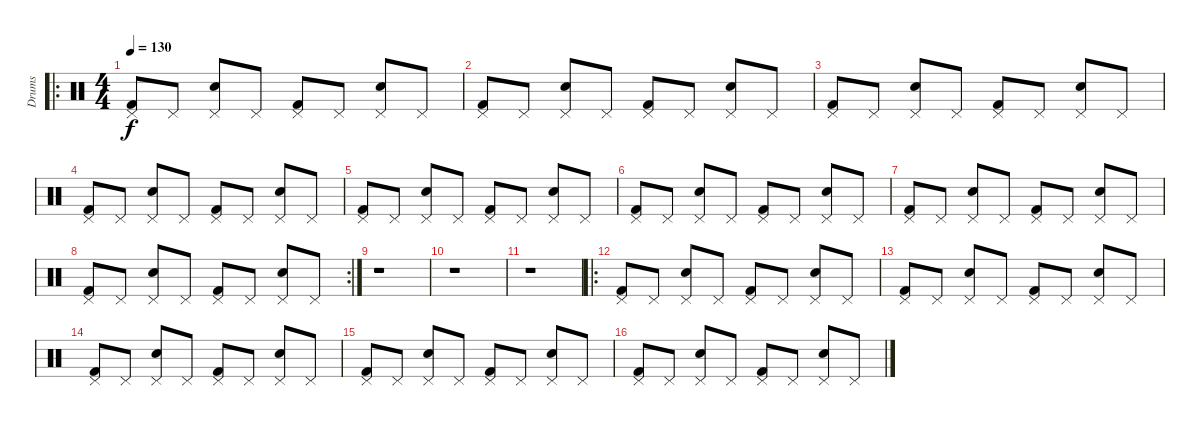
\track ("Drums" "Drums") {instrument percussion}
\staff {score}
\articulation defaults
\ro
\ts (4 4)
\tempo 130
\clef neutral
\ks c
("Pedal Hi-Hat (hit)" "Kick (hit) 2").8{dy f} "Pedal Hi-Hat (hit)".8 ("Pedal Hi-Hat (hit)" "Snare (hit) 2").8 "Pedal Hi-Hat (hit)".8 ("Pedal Hi-Hat (hit)" "Kick (hit) 2").8 "Pedal Hi-Hat (hit)".8 ("Pedal Hi-Hat (hit)" "Snare (hit) 2").8 "Pedal Hi-Hat (hit)".8 |
("Pedal Hi-Hat (hit)" "Kick (hit) 2").8 "Pedal Hi-Hat (hit)".8 ("Pedal Hi-Hat (hit)" "Snare (hit) 2").8 "Pedal Hi-Hat (hit)".8 ("Pedal Hi-Hat (hit)" "Kick (hit) 2").8 "Pedal Hi-Hat (hit)".8 ("Pedal Hi-Hat (hit)" "Snare (hit) 2").8 "Pedal Hi-Hat (hit)".8 |
("Pedal Hi-Hat (hit)" "Kick (hit) 2").8 "Pedal Hi-Hat (hit)".8 ("Pedal Hi-Hat (hit)" "Snare (hit) 2").8 "Pedal Hi-Hat (hit)".8 ("Pedal Hi-Hat (hit)" "Kick (hit) 2").8 "Pedal Hi-Hat (hit)".8 ("Pedal Hi-Hat (hit)" "Snare (hit) 2").8 "Pedal Hi-Hat (hit)".8 |
("Pedal Hi-Hat (hit)" "Kick (hit) 2").8 "Pedal Hi-Hat (hit)".8 ("Pedal Hi-Hat (hit)" "Snare (hit) 2").8 "Pedal Hi-Hat (hit)".8 ("Pedal Hi-Hat (hit)" "Kick (hit) 2").8 "Pedal Hi-Hat (hit)".8 ("Pedal Hi-Hat (hit)" "Snare (hit) 2").8 "Pedal Hi-Hat (hit)".8 |
("Pedal Hi-Hat (hit)" "Kick (hit) 2").8 "Pedal Hi-Hat (hit)".8 ("Pedal Hi-Hat (hit)" "Snare (hit) 2").8 "Pedal Hi-Hat (hit)".8 ("Pedal Hi-Hat (hit)" "Kick (hit) 2").8 "Pedal Hi-Hat (hit)".8 ("Pedal Hi-Hat (hit)" "Snare (hit) 2").8 "Pedal Hi-Hat (hit)".8 |
("Pedal Hi-Hat (hit)" "Kick (hit) 2").8 "Pedal Hi-Hat (hit)".8 ("Pedal Hi-Hat (hit)" "Snare (hit) 2").8 "Pedal Hi-Hat (hit)".8 ("Pedal Hi-Hat (hit)" "Kick (hit) 2").8 "Pedal Hi-Hat (hit)".8 ("Pedal Hi-Hat (hit)" "Snare (hit) 2").8 "Pedal Hi-Hat (hit)".8 |
("Pedal Hi-Hat (hit)" "Kick (hit) 2").8 "Pedal Hi-Hat (hit)".8 ("Pedal Hi-Hat (hit)" "Snare (hit) 2").8 "Pedal Hi-Hat (hit)".8 ("Pedal Hi-Hat (hit)" "Kick (hit) 2").8 "Pedal Hi-Hat (hit)".8 ("Pedal Hi-Hat (hit)" "Snare (hit) 2").8 "Pedal Hi-Hat (hit)".8 |
\rc 2
("Pedal Hi-Hat (hit)" "Kick (hit) 2").8 "Pedal Hi-Hat (hit)".8 ("Pedal Hi-Hat (hit)" "Snare (hit) 2").8 "Pedal Hi-Hat (hit)".8 ("Pedal Hi-Hat (hit)" "Kick (hit) 2").8 "Pedal Hi-Hat (hit)".8 ("Pedal Hi-Hat (hit)" "Snare (hit) 2").8 "Pedal Hi-Hat (hit)".8 |
r.1 |
r.1 |
r.1 |
\ro
("Pedal Hi-Hat (hit)" "Kick (hit) 2").8 "Pedal Hi-Hat (hit)".8 ("Pedal Hi-Hat (hit)" "Snare (hit) 2").8 "Pedal Hi-Hat (hit)".8 ("Pedal Hi-Hat (hit)" "Kick (hit) 2").8 "Pedal Hi-Hat (hit)".8 ("Pedal Hi-Hat (hit)" "Snare (hit) 2").8 "Pedal Hi-Hat (hit)".8 |
("Pedal Hi-Hat (hit)" "Kick (hit) 2").8 "Pedal Hi-Hat (hit)".8 ("Pedal Hi-Hat (hit)" "Snare (hit) 2").8 "Pedal Hi-Hat (hit)".8 ("Pedal Hi-Hat (hit)" "Kick (hit) 2").8 "Pedal Hi-Hat (hit)".8 ("Pedal Hi-Hat (hit)" "Snare (hit) 2").8 "Pedal Hi-Hat (hit)".8 |
("Pedal Hi-Hat (hit)" "Kick (hit) 2").8 "Pedal Hi-Hat (hit)".8 ("Pedal Hi-Hat (hit)" "Snare (hit) 2").8 "Pedal Hi-Hat (hit)".8 ("Pedal Hi-Hat (hit)" "Kick (hit) 2").8 "Pedal Hi-Hat (hit)".8 ("Pedal Hi-Hat (hit)" "Snare (hit) 2").8 "Pedal Hi-Hat (hit)".8 |
("Pedal Hi-Hat (hit)" "Kick (hit) 2").8 "Pedal Hi-Hat (hit)".8 ("Pedal Hi-Hat (hit)" "Snare (hit) 2").8 "Pedal Hi-Hat (hit)".8 ("Pedal Hi-Hat (hit)" "Kick (hit) 2").8 "Pedal Hi-Hat (hit)".8 ("Pedal Hi-Hat (hit)" "Snare (hit) 2").8 "Pedal Hi-Hat (hit)".8 |
("Pedal Hi-Hat (hit)" "Kick (hit) 2").8 "Pedal Hi-Hat (hit)".8 ("Pedal Hi-Hat (hit)" "Snare (hit) 2").8 "Pedal Hi-Hat (hit)".8 ("Pedal Hi-Hat (hit)" "Kick (hit) 2").8 "Pedal Hi-Hat (hit)".8 ("Pedal Hi-Hat (hit)" "Snare (hit) 2").8 "Pedal Hi-Hat (hit)".8
